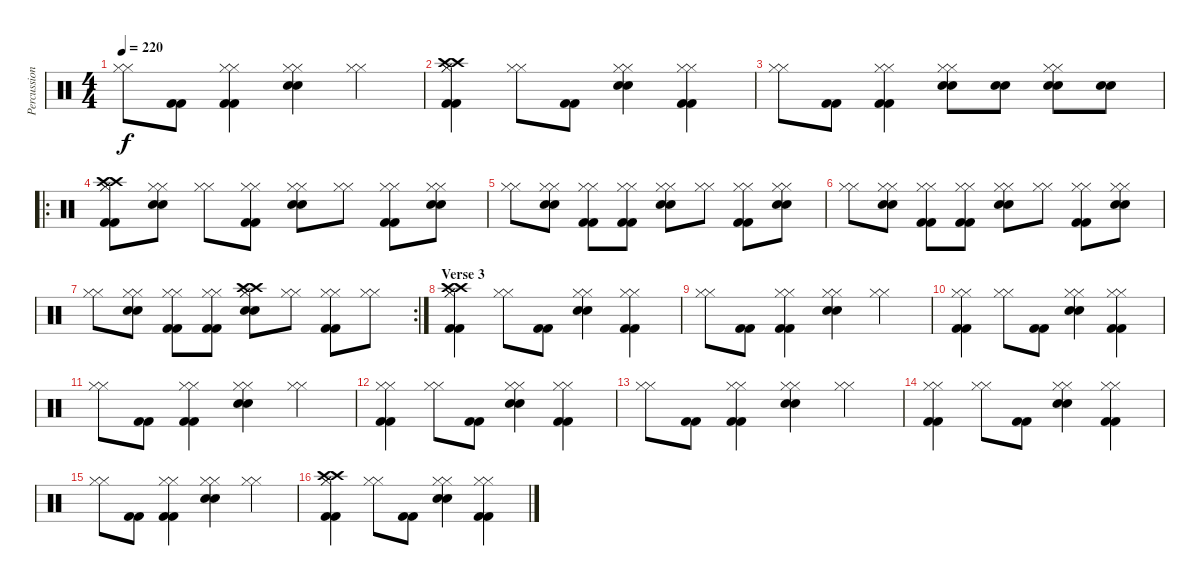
\track ("Percussion" "Percussion") {instrument percussion}
\staff {score}
\articulation defaults
\ts (4 4)
\tempo 220
\clef neutral
\ks c
("Hi-Hat (closed)" "Hi-Hat (closed)").8{dy f} ("Kick (hit) 2" "Kick (hit) 2").8 ("Hi-Hat (closed)" "Hi-Hat (closed)" "Kick (hit) 2" "Kick (hit) 2").4 ("Hi-Hat (closed)" "Hi-Hat (closed)" "Electric Snare (hit)" "Electric Snare (hit)").4 ("Hi-Hat (closed)" "Hi-Hat (closed)").4 |
("Hi-Hat (closed)" "Hi-Hat (closed)" "Kick (hit) 2" "Kick (hit) 2" "Crash high (hit)" "Crash high (hit)").4 ("Hi-Hat (closed)" "Hi-Hat (closed)").8 ("Kick (hit) 2" "Kick (hit) 2").8 ("Hi-Hat (closed)" "Hi-Hat (closed)" "Electric Snare (hit)" "Electric Snare (hit)").4 ("Hi-Hat (closed)" "Hi-Hat (closed)" "Kick (hit) 2" "Kick (hit) 2").4 |
("Hi-Hat (closed)" "Hi-Hat (closed)").8 ("Kick (hit) 2" "Kick (hit) 2").8 ("Hi-Hat (closed)" "Hi-Hat (closed)" "Kick (hit) 2" "Kick (hit) 2").4 ("Hi-Hat (closed)" "Hi-Hat (closed)" "Electric Snare (hit)" "Electric Snare (hit)").8 ("Electric Snare (hit)" "Electric Snare (hit)").8 ("Hi-Hat (closed)" "Hi-Hat (closed)" "Electric Snare (hit)" "Electric Snare (hit)").8 ("Electric Snare (hit)" "Electric Snare (hit)").8 |
\ro
("Hi-Hat (closed)" "Hi-Hat (closed)" "Kick (hit) 2" "Kick (hit) 2" "Crash high (hit)" "Crash high (hit)").8 ("Hi-Hat (closed)" "Hi-Hat (closed)" "Electric Snare (hit)" "Electric Snare (hit)").8 ("Hi-Hat (closed)" "Hi-Hat (closed)").8 ("Hi-Hat (closed)" "Hi-Hat (closed)" "Kick (hit) 2" "Kick (hit) 2").8 ("Hi-Hat (closed)" "Hi-Hat (closed)" "Electric Snare (hit)" "Electric Snare (hit)").8 ("Hi-Hat (closed)" "Hi-Hat (closed)").8 ("Hi-Hat (closed)" "Hi-Hat (closed)" "Kick (hit) 2" "Kick (hit) 2").8 ("Hi-Hat (closed)" "Hi-Hat (closed)" "Electric Snare (hit)" "Electric Snare (hit)").8 |
("Hi-Hat (closed)" "Hi-Hat (closed)").8 ("Hi-Hat (closed)" "Hi-Hat (closed)" "Electric Snare (hit)" "Electric Snare (hit)").8 ("Hi-Hat (closed)" "Hi-Hat (closed)" "Kick (hit) 2" "Kick (hit) 2").8 ("Hi-Hat (closed)" "Hi-Hat (closed)" "Kick (hit) 2" "Kick (hit) 2").8 ("Hi-Hat (closed)" "Hi-Hat (closed)" "Electric Snare (hit)" "Electric Snare (hit)").8 ("Hi-Hat (closed)" "Hi-Hat (closed)").8 ("Hi-Hat (closed)" "Hi-Hat (closed)" "Kick (hit) 2" "Kick (hit) 2").8 ("Hi-Hat (closed)" "Hi-Hat (closed)" "Electric Snare (hit)" "Electric Snare (hit)").8 |
("Hi-Hat (closed)" "Hi-Hat (closed)").8 ("Hi-Hat (closed)" "Hi-Hat (closed)" "Electric Snare (hit)" "Electric Snare (hit)").8 ("Hi-Hat (closed)" "Hi-Hat (closed)" "Kick (hit) 2" "Kick (hit) 2").8 ("Hi-Hat (closed)" "Hi-Hat (closed)" "Kick (hit) 2" "Kick (hit) 2").8 ("Hi-Hat (closed)" "Hi-Hat (closed)" "Electric Snare (hit)" "Electric Snare (hit)").8 ("Hi-Hat (closed)" "Hi-Hat (closed)").8 ("Hi-Hat (closed)" "Hi-Hat (closed)" "Kick (hit) 2" "Kick (hit) 2").8 ("Hi-Hat (closed)" "Hi-Hat (closed)" "Electric Snare (hit)" "Electric Snare (hit)").8 |
\rc 2
("Hi-Hat (closed)" "Hi-Hat (closed)").8 ("Hi-Hat (closed)" "Hi-Hat (closed)" "Electric Snare (hit)" "Electric Snare (hit)").8 ("Hi-Hat (closed)" "Hi-Hat (closed)" "Kick (hit) 2" "Kick (hit) 2").8 ("Hi-Hat (closed)" "Hi-Hat (closed)" "Kick (hit) 2" "Kick (hit) 2").8 ("Hi-Hat (closed)" "Hi-Hat (closed)" "Electric Snare (hit)" "Electric Snare (hit)" "Crash high (hit)" "Crash high (hit)").8 ("Hi-Hat (closed)" "Hi-Hat (closed)").8 ("Hi-Hat (closed)" "Hi-Hat (closed)" "Kick (hit) 2" "Kick (hit) 2").8 ("Hi-Hat (closed)" "Hi-Hat (closed)").8 |
\section ("" "Verse 3")
("Hi-Hat (closed)" "Hi-Hat (closed)" "Kick (hit) 2" "Kick (hit) 2" "Crash high (hit)" "Crash high (hit)").4 ("Hi-Hat (closed)" "Hi-Hat (closed)").8 ("Kick (hit) 2" "Kick (hit) 2").8 ("Hi-Hat (closed)" "Hi-Hat (closed)" "Electric Snare (hit)" "Electric Snare (hit)").4 ("Hi-Hat (closed)" "Hi-Hat (closed)" "Kick (hit) 2" "Kick (hit) 2").4 |
("Hi-Hat (closed)" "Hi-Hat (closed)").8 ("Kick (hit) 2" "Kick (hit) 2").8 ("Hi-Hat (closed)" "Hi-Hat (closed)" "Kick (hit) 2" "Kick (hit) 2").4 ("Hi-Hat (closed)" "Hi-Hat (closed)" "Electric Snare (hit)" "Electric Snare (hit)").4 ("Hi-Hat (closed)" "Hi-Hat (closed)").4 |
("Hi-Hat (closed)" "Hi-Hat (closed)" "Kick (hit) 2" "Kick (hit) 2").4 ("Hi-Hat (closed)" "Hi-Hat (closed)").8 ("Kick (hit) 2" "Kick (hit) 2").8 ("Hi-Hat (closed)" "Hi-Hat (closed)" "Electric Snare (hit)" "Electric Snare (hit)").4 ("Hi-Hat (closed)" "Hi-Hat (closed)" "Kick (hit) 2" "Kick (hit) 2").4 |
("Hi-Hat (closed)" "Hi-Hat (closed)").8 ("Kick (hit) 2" "Kick (hit) 2").8 ("Hi-Hat (closed)" "Hi-Hat (closed)" "Kick (hit) 2" "Kick (hit) 2").4 ("Hi-Hat (closed)" "Hi-Hat (closed)" "Electric Snare (hit)" "Electric Snare (hit)").4 ("Hi-Hat (closed)" "Hi-Hat (closed)").4 |
("Hi-Hat (closed)" "Hi-Hat (closed)" "Kick (hit) 2" "Kick (hit) 2").4 ("Hi-Hat (closed)" "Hi-Hat (closed)").8 ("Kick (hit) 2" "Kick (hit) 2").8 ("Hi-Hat (closed)" "Hi-Hat (closed)" "Electric Snare (hit)" "Electric Snare (hit)").4 ("Hi-Hat (closed)" "Hi-Hat (closed)" "Kick (hit) 2" "Kick (hit) 2").4 |
("Hi-Hat (closed)" "Hi-Hat (closed)").8 ("Kick (hit) 2" "Kick (hit) 2").8 ("Hi-Hat (closed)" "Hi-Hat (closed)" "Kick (hit) 2" "Kick (hit) 2").4 ("Hi-Hat (closed)" "Hi-Hat (closed)" "Electric Snare (hit)" "Electric Snare (hit)").4 ("Hi-Hat (closed)" "Hi-Hat (closed)").4 |
("Hi-Hat (closed)" "Hi-Hat (closed)" "Kick (hit) 2" "Kick (hit) 2").4 ("Hi-Hat (closed)" "Hi-Hat (closed)").8 ("Kick (hit) 2" "Kick (hit) 2").8 ("Hi-Hat (closed)" "Hi-Hat (closed)" "Electric Snare (hit)" "Electric Snare (hit)").4 ("Hi-Hat (closed)" "Hi-Hat (closed)" "Kick (hit) 2" "Kick (hit) 2").4 |
("Hi-Hat (closed)" "Hi-Hat (closed)").8 ("Kick (hit) 2" "Kick (hit) 2").8 ("Hi-Hat (closed)" "Hi-Hat (closed)" "Kick (hit) 2" "Kick (hit) 2").4 ("Hi-Hat (closed)" "Hi-Hat (closed)" "Electric Snare (hit)" "Electric Snare (hit)").4 ("Hi-Hat (closed)" "Hi-Hat (closed)").4 |
("Hi-Hat (closed)" "Hi-Hat (closed)" "Kick (hit) 2" "Kick (hit) 2" "Crash high (hit)" "Crash high (hit)").4 ("Hi-Hat (closed)" "Hi-Hat (closed)").8 ("Kick (hit) 2" "Kick (hit) 2").8 ("Hi-Hat (closed)" "Hi-Hat (closed)" "Electric Snare (hit)" "Electric Snare (hit)").4 ("Hi-Hat (closed)" "Hi-Hat (closed)" "Kick (hit) 2" "Kick (hit) 2").4
